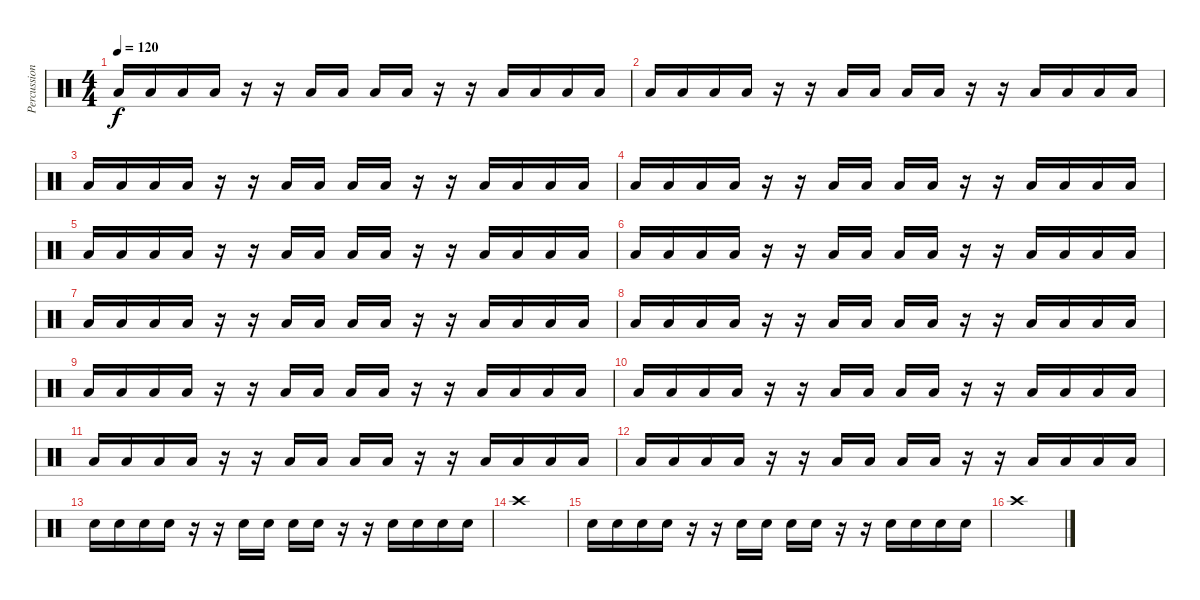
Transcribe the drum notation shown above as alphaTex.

\track ("Percussions" "Percussion") {instrument percussion}
\staff {score}
\articulation defaults
\ts (4 4)
\tempo 120
\clef neutral
\ks c "Low Floor Tom (hit)".16{dy f} "Low Floor Tom (hit)".16 "Low Floor Tom (hit)".16 "Low Floor Tom (hit)".16
r.16 r.16 "Low Floor Tom (hit)".16 "Low Floor Tom (hit)".16 "Low Floor Tom (hit)".16 "Low Floor Tom (hit)".16 r.16 r.16 "Low Floor Tom (hit)".16 "Low Floor Tom (hit)".16 "Low Floor Tom (hit)".16 "Low Floor Tom (hit)".16 |
"Low Floor Tom (hit)".16 "Low Floor Tom (hit)".16 "Low Floor Tom (hit)".16 "Low Floor Tom (hit)".16 r.16 r.16 "Low Floor Tom (hit)".16 "Low Floor Tom (hit)".16 "Low Floor Tom (hit)".16 "Low Floor Tom (hit)".16 r.16 r.16 "Low Floor Tom (hit)".16 "Low Floor Tom (hit)".16 "Low Floor Tom (hit)".16 "Low Floor Tom (hit)".16 |
"Low Floor Tom (hit)".16 "Low Floor Tom (hit)".16 "Low Floor Tom (hit)".16 "Low Floor Tom (hit)".16 r.16 r.16 "Low Floor Tom (hit)".16 "Low Floor Tom (hit)".16 "Low Floor Tom (hit)".16 "Low Floor Tom (hit)".16 r.16 r.16 "Low Floor Tom (hit)".16 "Low Floor Tom (hit)".16 "Low Floor Tom (hit)".16 "Low Floor Tom (hit)".16 |
"Low Floor Tom (hit)".16 "Low Floor Tom (hit)".16 "Low Floor Tom (hit)".16 "Low Floor Tom (hit)".16 r.16 r.16 "Low Floor Tom (hit)".16 "Low Floor Tom (hit)".16 "Low Floor Tom (hit)".16 "Low Floor Tom (hit)".16 r.16 r.16 "Low Floor Tom (hit)".16 "Low Floor Tom (hit)".16 "Low Floor Tom (hit)".16 "Low Floor Tom (hit)".16 |
"Low Floor Tom (hit)".16 "Low Floor Tom (hit)".16 "Low Floor Tom (hit)".16 "Low Floor Tom (hit)".16 r.16 r.16 "Low Floor Tom (hit)".16 "Low Floor Tom (hit)".16 "Low Floor Tom (hit)".16 "Low Floor Tom (hit)".16 r.16 r.16 "Low Floor Tom (hit)".16 "Low Floor Tom (hit)".16 "Low Floor Tom (hit)".16 "Low Floor Tom (hit)".16 |
"Low Floor Tom (hit)".16 "Low Floor Tom (hit)".16 "Low Floor Tom (hit)".16 "Low Floor Tom (hit)".16 r.16 r.16 "Low Floor Tom (hit)".16 "Low Floor Tom (hit)".16 "Low Floor Tom (hit)".16 "Low Floor Tom (hit)".16 r.16 r.16 "Low Floor Tom (hit)".16 "Low Floor Tom (hit)".16 "Low Floor Tom (hit)".16 "Low Floor Tom (hit)".16 |
"Low Floor Tom (hit)".16 "Low Floor Tom (hit)".16 "Low Floor Tom (hit)".16 "Low Floor Tom (hit)".16 r.16 r.16 "Low Floor Tom (hit)".16 "Low Floor Tom (hit)".16 "Low Floor Tom (hit)".16 "Low Floor Tom (hit)".16 r.16 r.16 "Low Floor Tom (hit)".16 "Low Floor Tom (hit)".16 "Low Floor Tom (hit)".16 "Low Floor Tom (hit)".16 |
"Low Floor Tom (hit)".16 "Low Floor Tom (hit)".16 "Low Floor Tom (hit)".16 "Low Floor Tom (hit)".16 r.16 r.16 "Low Floor Tom (hit)".16 "Low Floor Tom (hit)".16 "Low Floor Tom (hit)".16 "Low Floor Tom (hit)".16 r.16 r.16 "Low Floor Tom (hit)".16 "Low Floor Tom (hit)".16 "Low Floor Tom (hit)".16 "Low Floor Tom (hit)".16 |
"Low Floor Tom (hit)".16 "Low Floor Tom (hit)".16 "Low Floor Tom (hit)".16 "Low Floor Tom (hit)".16 r.16 r.16 "Low Floor Tom (hit)".16 "Low Floor Tom (hit)".16 "Low Floor Tom (hit)".16 "Low Floor Tom (hit)".16 r.16 r.16 "Low Floor Tom (hit)".16 "Low Floor Tom (hit)".16 "Low Floor Tom (hit)".16 "Low Floor Tom (hit)".16 |
"Low Floor Tom (hit)".16 "Low Floor Tom (hit)".16 "Low Floor Tom (hit)".16 "Low Floor Tom (hit)".16 r.16 r.16 "Low Floor Tom (hit)".16 "Low Floor Tom (hit)".16 "Low Floor Tom (hit)".16 "Low Floor Tom (hit)".16 r.16 r.16 "Low Floor Tom (hit)".16 "Low Floor Tom (hit)".16 "Low Floor Tom (hit)".16 "Low Floor Tom (hit)".16 |
"Low Floor Tom (hit)".16 "Low Floor Tom (hit)".16 "Low Floor Tom (hit)".16 "Low Floor Tom (hit)".16 r.16 r.16 "Low Floor Tom (hit)".16 "Low Floor Tom (hit)".16 "Low Floor Tom (hit)".16 "Low Floor Tom (hit)".16 r.16 r.16 "Low Floor Tom (hit)".16 "Low Floor Tom (hit)".16 "Low Floor Tom (hit)".16 "Low Floor Tom (hit)".16 |
"Low Floor Tom (hit)".16 "Low Floor Tom (hit)".16 "Low Floor Tom (hit)".16 "Low Floor Tom (hit)".16 r.16 r.16 "Low Floor Tom (hit)".16 "Low Floor Tom (hit)".16 "Low Floor Tom (hit)".16 "Low Floor Tom (hit)".16 r.16 r.16 "Low Floor Tom (hit)".16 "Low Floor Tom (hit)".16 "Low Floor Tom (hit)".16 "Low Floor Tom (hit)".16 |
"Snare (hit) 2".16 "Snare (hit) 2".16 "Snare (hit) 2".16 "Snare (hit) 2".16 r.16 r.16 "Snare (hit) 2".16 "Snare (hit) 2".16 "Snare (hit) 2".16 "Snare (hit) 2".16 r.16 r.16 "Snare (hit) 2".16 "Snare (hit) 2".16 "Snare (hit) 2".16 "Snare (hit) 2".16 |
"Crash high (hit)".1 |
"Snare (hit) 2".16 "Snare (hit) 2".16 "Snare (hit) 2".16 "Snare (hit) 2".16 r.16 r.16 "Snare (hit) 2".16 "Snare (hit) 2".16 "Snare (hit) 2".16 "Snare (hit) 2".16 r.16 r.16 "Snare (hit) 2".16 "Snare (hit) 2".16 "Snare (hit) 2".16 "Snare (hit) 2".16 |
"Crash high (hit)".1
